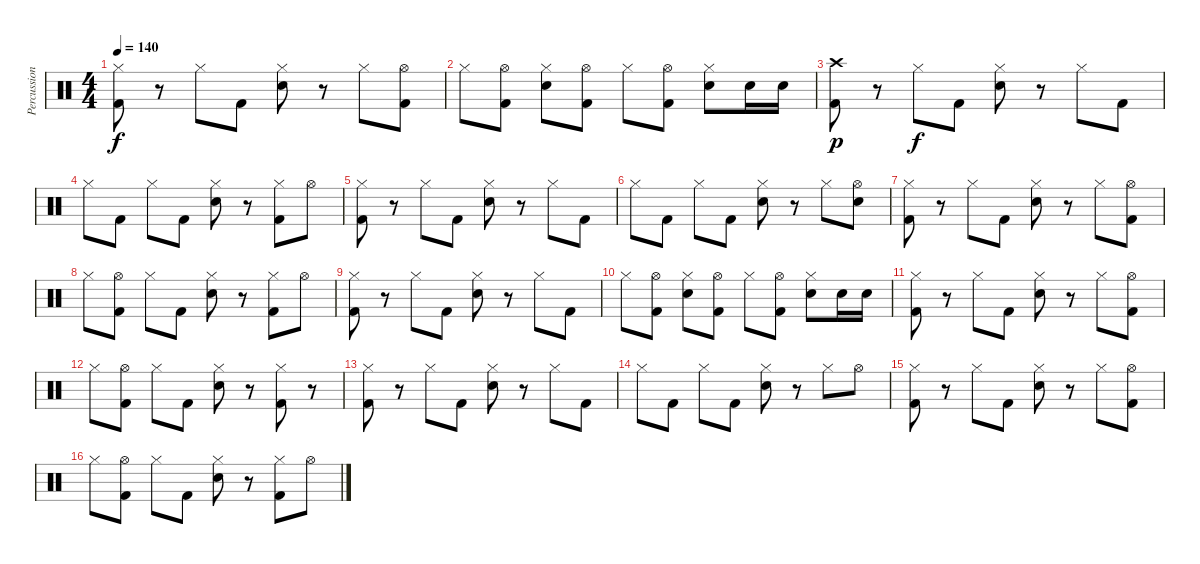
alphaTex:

\track ("Percussion" "Percussion") {instrument percussion}
\staff {score}
\articulation defaults
\ts (4 4)
\tempo 140
\clef neutral
\ks c
("Hi-Hat (closed)" "Kick (hit) 2").8{dy f} r.8 "Hi-Hat (closed)".8 "Kick (hit) 2".8 ("Hi-Hat (closed)" "Snare (hit) 2").8 r.8 "Hi-Hat (closed)".8 ("Hi-Hat (open)" "Kick (hit) 2").8 |
"Hi-Hat (closed)".8 ("Hi-Hat (open)" "Kick (hit) 2").8 ("Hi-Hat (closed)" "Snare (hit) 2").8 ("Hi-Hat (open)" "Kick (hit) 2").8 "Hi-Hat (closed)".8 ("Hi-Hat (open)" "Kick (hit) 2").8 ("Hi-Hat (closed)" "Snare (hit) 2").8 "Snare (hit) 2".16 "Snare (hit) 2".16 |
("Crash high (hit)" "Kick (hit) 2").8{dy p} r.8 "Hi-Hat (closed)".8{dy f} "Kick (hit) 2".8 ("Hi-Hat (closed)" "Snare (hit) 2").8 r.8 "Hi-Hat (closed)".8 "Kick (hit) 2".8 |
"Hi-Hat (closed)".8 "Kick (hit) 2".8 "Hi-Hat (closed)".8 "Kick (hit) 2".8 ("Hi-Hat (closed)" "Snare (hit) 2").8 r.8 ("Hi-Hat (closed)" "Kick (hit) 2").8 "Hi-Hat (open)".8 |
("Hi-Hat (closed)" "Kick (hit) 2").8 r.8 "Hi-Hat (closed)".8 "Kick (hit) 2".8 ("Hi-Hat (closed)" "Snare (hit) 2").8 r.8 "Hi-Hat (closed)".8 "Kick (hit) 2".8 |
"Hi-Hat (closed)".8 "Kick (hit) 2".8 "Hi-Hat (closed)".8 "Kick (hit) 2".8 ("Hi-Hat (closed)" "Snare (hit) 2").8 r.8 "Hi-Hat (closed)".8 ("Hi-Hat (open)" "Snare (hit) 2").8 |
("Hi-Hat (closed)" "Kick (hit) 2").8 r.8 "Hi-Hat (closed)".8 "Kick (hit) 2".8 ("Hi-Hat (closed)" "Snare (hit) 2").8 r.8 "Hi-Hat (closed)".8 ("Hi-Hat (open)" "Kick (hit) 2").8 |
"Hi-Hat (closed)".8 ("Hi-Hat (open)" "Kick (hit) 2").8 "Hi-Hat (closed)".8 "Kick (hit) 2".8 ("Hi-Hat (closed)" "Snare (hit) 2").8 r.8 ("Hi-Hat (closed)" "Kick (hit) 2").8 "Hi-Hat (open)".8 |
("Hi-Hat (closed)" "Kick (hit) 2").8 r.8 "Hi-Hat (closed)".8 "Kick (hit) 2".8 ("Hi-Hat (closed)" "Snare (hit) 2").8 r.8 "Hi-Hat (closed)".8 "Kick (hit) 2".8 |
"Hi-Hat (closed)".8 ("Hi-Hat (open)" "Kick (hit) 2").8 ("Hi-Hat (closed)" "Snare (hit) 2").8 ("Hi-Hat (open)" "Kick (hit) 2").8 "Hi-Hat (closed)".8 ("Hi-Hat (open)" "Kick (hit) 2").8 ("Hi-Hat (closed)" "Snare (hit) 2").8 "Snare (hit) 2".16 "Snare (hit) 2".16 |
("Hi-Hat (closed)" "Kick (hit) 2").8 r.8 "Hi-Hat (closed)".8 "Kick (hit) 2".8 ("Hi-Hat (closed)" "Snare (hit) 2").8 r.8 "Hi-Hat (closed)".8 ("Hi-Hat (open)" "Kick (hit) 2").8 |
"Hi-Hat (closed)".8 ("Hi-Hat (open)" "Kick (hit) 2").8 "Hi-Hat (closed)".8 "Kick (hit) 2".8 ("Hi-Hat (closed)" "Snare (hit) 2").8 r.8 ("Hi-Hat (closed)" "Kick (hit) 2").8 r.8 |
("Hi-Hat (closed)" "Kick (hit) 2").8 r.8 "Hi-Hat (closed)".8 "Kick (hit) 2".8 ("Hi-Hat (closed)" "Snare (hit) 2").8 r.8 "Hi-Hat (closed)".8 "Kick (hit) 2".8 |
"Hi-Hat (closed)".8 "Kick (hit) 2".8 "Hi-Hat (closed)".8 "Kick (hit) 2".8 ("Hi-Hat (closed)" "Snare (hit) 2").8 r.8 "Hi-Hat (closed)".8 "Hi-Hat (open)".8 |
("Hi-Hat (closed)" "Kick (hit) 2").8 r.8 "Hi-Hat (closed)".8 "Kick (hit) 2".8 ("Hi-Hat (closed)" "Snare (hit) 2").8 r.8 "Hi-Hat (closed)".8 ("Hi-Hat (open)" "Kick (hit) 2").8 |
"Hi-Hat (closed)".8 ("Hi-Hat (open)" "Kick (hit) 2").8 "Hi-Hat (closed)".8 "Kick (hit) 2".8 ("Hi-Hat (closed)" "Snare (hit) 2").8 r.8 ("Hi-Hat (closed)" "Kick (hit) 2").8 "Hi-Hat (open)".8
